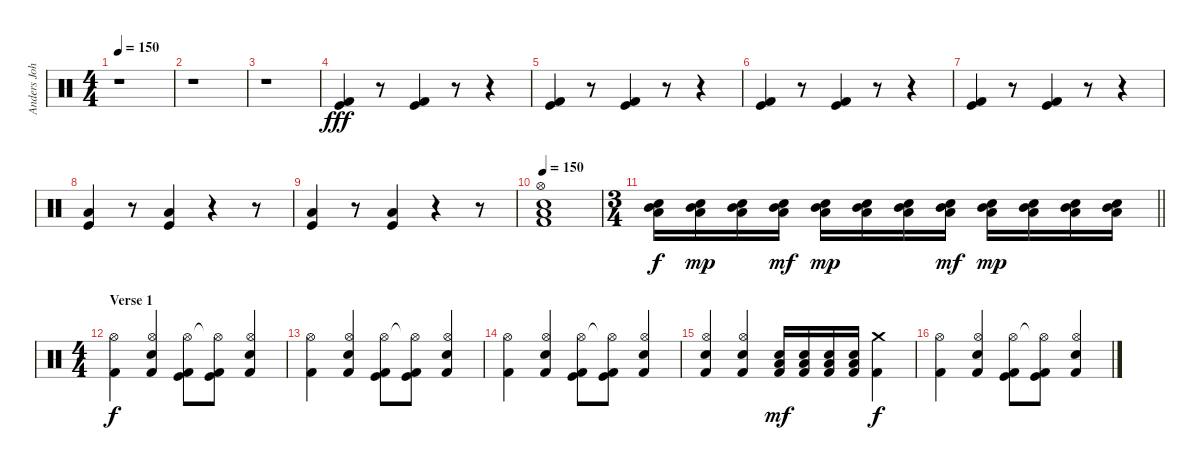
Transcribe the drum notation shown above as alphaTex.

\track ("Anders Johansson" "Anders Joh") {instrument percussion}
\staff {score}
\articulation defaults
\ts (4 4)
\tempo 150
\clef neutral
\ks c
r.1{dy fff} |
r.1 |
r.1 |
("Kick (hit) 2" "Kick (hit)").4 r.8 ("Kick (hit) 2" "Kick (hit)").4 r.8 r.4 |
("Kick (hit) 2" "Kick (hit)").4 r.8 ("Kick (hit) 2" "Kick (hit)").4 r.8 r.4 |
("Kick (hit) 2" "Kick (hit)").4 r.8 ("Kick (hit) 2" "Kick (hit)").4 r.8 r.4 |
("Kick (hit) 2" "Kick (hit)").4 r.8 ("Kick (hit) 2" "Kick (hit)").4 r.8 r.4 |
("Kick (hit)" "Low Tom (hit)").4 r.8 ("Kick (hit)" "Low Tom (hit)").4 r.4 r.8 |
("Kick (hit)" "Low Tom (hit)").4 r.8 ("Kick (hit)" "Low Tom (hit)").4 r.4 r.8 |
\tempo 150
("Snare (hit) 2" "Low Tom (hit)" "Kick (hit) 2" "Hi-Hat (open)").1 |
\ts (3 4)
\barLineRight lightlight
("Mid Tom (hit)" "Electric Snare (hit)" "Low Tom (hit)").16{dy f} ("Mid Tom (hit)" "Electric Snare (hit)" "Low Tom (hit)").16{dy mp} ("Mid Tom (hit)" "Electric Snare (hit)" "Low Tom (hit)").16 ("Mid Tom (hit)" "Electric Snare (hit)" "Low Tom (hit)").16{dy mf} ("Mid Tom (hit)" "Electric Snare (hit)" "Low Tom (hit)").16{dy mp} ("Mid Tom (hit)" "Electric Snare (hit)" "Low Tom (hit)").16 ("Mid Tom (hit)" "Electric Snare (hit)" "Low Tom (hit)").16 ("Mid Tom (hit)" "Electric Snare (hit)" "Low Tom (hit)").16{dy mf} ("Mid Tom (hit)" "Electric Snare (hit)" "Low Tom (hit)").16{dy mp} ("Mid Tom (hit)" "Electric Snare (hit)" "Low Tom (hit)").16 ("Mid Tom (hit)" "Electric Snare (hit)" "Low Tom (hit)").16 ("Mid Tom (hit)" "Electric Snare (hit)" "Low Tom (hit)").16 |
\ts (4 4)
\section ("" "Verse 1")
("Hi-Hat (open)" "Kick (hit) 2").4{dy f} ("Hi-Hat (open)" "Electric Snare (hit)" "Kick (hit) 2").4 ("Hi-Hat (open)" "Kick (hit)" "Kick (hit) 2").8 ("Hi-Hat (open)"{t} "Kick (hit)" "Kick (hit) 2").8 ("Hi-Hat (open)" "Electric Snare (hit)" "Kick (hit) 2").4 |
("Hi-Hat (open)" "Kick (hit) 2").4 ("Hi-Hat (open)" "Electric Snare (hit)" "Kick (hit) 2").4 ("Hi-Hat (open)" "Kick (hit)" "Kick (hit) 2").8 ("Hi-Hat (open)"{t} "Kick (hit)" "Kick (hit) 2").8 ("Hi-Hat (open)" "Electric Snare (hit)" "Kick (hit) 2").4 |
("Hi-Hat (open)" "Kick (hit) 2").4 ("Hi-Hat (open)" "Electric Snare (hit)" "Kick (hit) 2").4 ("Hi-Hat (open)" "Kick (hit)" "Kick (hit) 2").8 ("Hi-Hat (open)"{t} "Kick (hit)" "Kick (hit) 2").8 ("Hi-Hat (open)" "Electric Snare (hit)" "Kick (hit) 2").4 |
("Hi-Hat (open)" "Electric Snare (hit)" "Kick (hit) 2").4 ("Hi-Hat (open)" "Electric Snare (hit)" "Kick (hit) 2").4 ("Low Tom (hit)" "Electric Snare (hit)" "Kick (hit) 2").16{dy mf} ("Low Tom (hit)" "Electric Snare (hit)" "Kick (hit) 2").16 ("Low Tom (hit)" "Electric Snare (hit)" "Kick (hit) 2").16 ("Low Tom (hit)" "Electric Snare (hit)" "Kick (hit) 2").16 ("Crash medium (hit)" "Kick (hit) 2").4{dy f} |
("Hi-Hat (open)" "Kick (hit) 2").4 ("Hi-Hat (open)" "Electric Snare (hit)" "Kick (hit) 2").4 ("Hi-Hat (open)" "Kick (hit)" "Kick (hit) 2").8 ("Hi-Hat (open)"{t} "Kick (hit)" "Kick (hit) 2").8 ("Hi-Hat (open)" "Electric Snare (hit)" "Kick (hit) 2").4
